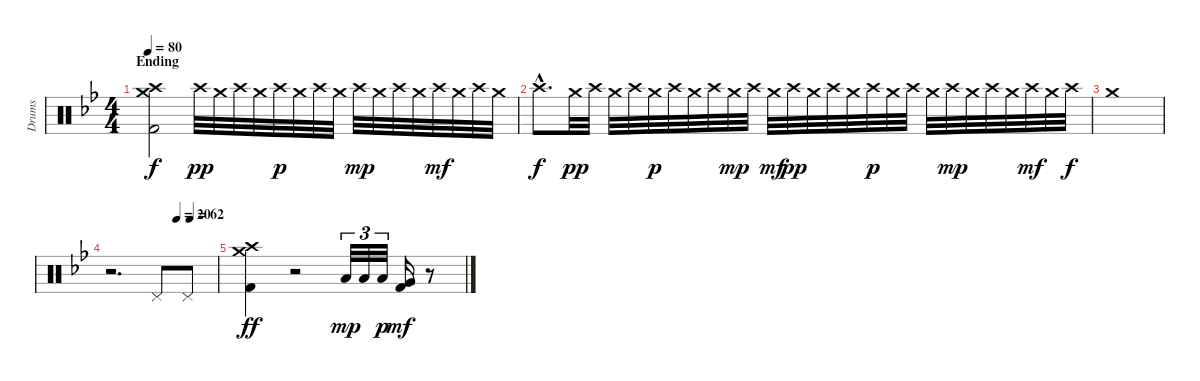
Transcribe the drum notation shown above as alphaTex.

\track ("Drums" "Drums") {instrument percussion}
\staff {score}
\articulation defaults
\ts (4 4)
\section ("" "Ending")
\tempo 80
\clef neutral
\ks gminor
("Crash high (hit)" "Crash medium (hit)" "Kick (hit) 2").2{dy f} "Crash high (hit)".32{dy pp} "Crash medium (hit)".32 "Crash high (hit)".32 "Crash medium (hit)".32 "Crash high (hit)".32{dy p} "Crash medium (hit)".32 "Crash high (hit)".32 "Crash medium (hit)".32 "Crash high (hit)".32{dy mp} "Crash medium (hit)".32 "Crash high (hit)".32 "Crash medium (hit)".32 "Crash high (hit)".32{dy mf} "Crash medium (hit)".32 "Crash high (hit)".32 "Crash medium (hit)".32 |
"Crash high (hit)"{hac}.8{d dy f} "Crash medium (hit)".32{dy pp} "Crash high (hit)".32 "Crash medium (hit)".32 "Crash high (hit)".32 "Crash medium (hit)".32{dy p} "Crash high (hit)".32 "Crash medium (hit)".32 "Crash high (hit)".32 "Crash medium (hit)".32{dy mp} "Crash high (hit)".32 "Crash medium (hit)".32{dy mf} "Crash high (hit)".32{dy pp} "Crash medium (hit)".32 "Crash high (hit)".32 "Crash medium (hit)".32 "Crash high (hit)".32{dy p} "Crash medium (hit)".32 "Crash high (hit)".32 "Crash medium (hit)".32 "Crash high (hit)".32{dy mp} "Crash medium (hit)".32 "Crash high (hit)".32 "Crash medium (hit)".32 "Crash high (hit)".32{dy mf} "Crash medium (hit)".32 "Crash high (hit)".32{dy f} |
"Crash medium (hit)".1 |
\tempo (20 0.625)
\tempo (62 0.75)
r.2{d} "Pedal Hi-Hat (hit)".8 "Pedal Hi-Hat (hit)".8 |
("Crash high (hit)" "Crash medium (hit)" "Kick (hit) 2").4{dy ff} r.2 "Low Tom (hit)".32{tu (3 2) dy mp} "Low Tom (hit)".32{tu (3 2)} "Low Tom (hit)".32{tu (3 2) dy p} ("Very Low Tom (hit)" "Kick (hit) 2").16{dy mf} r.8
